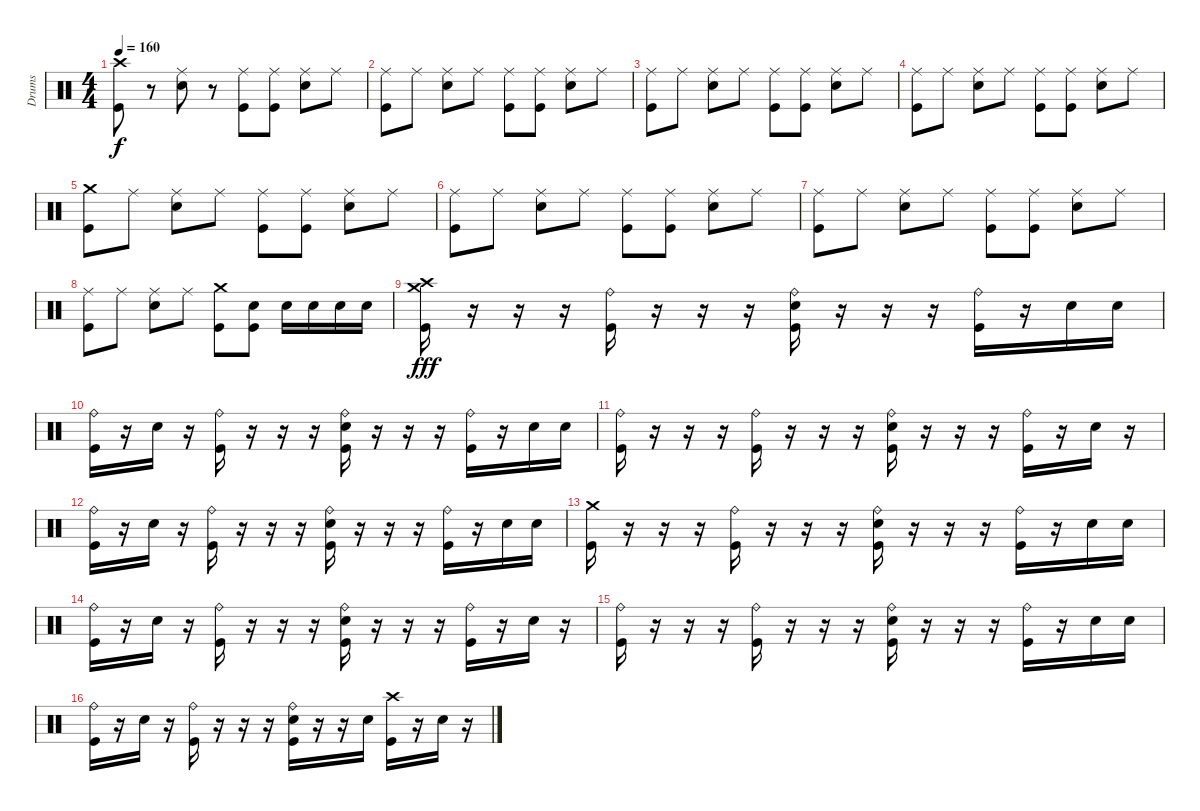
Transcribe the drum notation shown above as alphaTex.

\track ("Drums" "Drums") {instrument percussion}
\staff {score}
\articulation defaults
\ts (4 4)
\tempo 160
\clef neutral
\ks c
("Crash high (hit)" "Kick (hit)").8{dy f} r.8 ("Ride (middle)" "Electric Snare (hit)").8 r.8 ("Ride (middle)" "Kick (hit)").8 ("Ride (middle)" "Kick (hit)").8 ("Ride (middle)" "Electric Snare (hit)").8 "Ride (middle)".8 |
("Ride (middle)" "Kick (hit)").8 "Ride (middle)".8 ("Ride (middle)" "Electric Snare (hit)").8 "Ride (middle)".8 ("Ride (middle)" "Kick (hit)").8 ("Ride (middle)" "Kick (hit)").8 ("Ride (middle)" "Electric Snare (hit)").8 "Ride (middle)".8 |
("Ride (middle)" "Kick (hit)").8 "Ride (middle)".8 ("Ride (middle)" "Electric Snare (hit)").8 "Ride (middle)".8 ("Ride (middle)" "Kick (hit)").8 ("Ride (middle)" "Kick (hit)").8 ("Ride (middle)" "Electric Snare (hit)").8 "Ride (middle)".8 |
("Ride (middle)" "Kick (hit)").8 "Ride (middle)".8 ("Ride (middle)" "Electric Snare (hit)").8 "Ride (middle)".8 ("Ride (middle)" "Kick (hit)").8 ("Ride (middle)" "Kick (hit)").8 ("Ride (middle)" "Electric Snare (hit)").8 "Ride (middle)".8 |
("Crash medium (hit)" "Kick (hit)").8 "Ride (middle)".8 ("Ride (middle)" "Electric Snare (hit)").8 "Ride (middle)".8 ("Ride (middle)" "Kick (hit)").8 ("Ride (middle)" "Kick (hit)").8 ("Ride (middle)" "Electric Snare (hit)").8 "Ride (middle)".8 |
("Ride (middle)" "Kick (hit)").8 "Ride (middle)".8 ("Ride (middle)" "Electric Snare (hit)").8 "Ride (middle)".8 ("Ride (middle)" "Kick (hit)").8 ("Ride (middle)" "Kick (hit)").8 ("Ride (middle)" "Electric Snare (hit)").8 "Ride (middle)".8 |
("Ride (middle)" "Kick (hit)").8 "Ride (middle)".8 ("Ride (middle)" "Electric Snare (hit)").8 "Ride (middle)".8 ("Ride (middle)" "Kick (hit)").8 ("Ride (middle)" "Kick (hit)").8 ("Ride (middle)" "Electric Snare (hit)").8 "Ride (middle)".8 |
("Ride (middle)" "Kick (hit)").8 "Ride (middle)".8 ("Ride (middle)" "Electric Snare (hit)").8 "Ride (middle)".8 ("Crash medium (hit)" "Kick (hit)").8 ("Electric Snare (hit)" "Kick (hit)").8 "Electric Snare (hit)".16 "Electric Snare (hit)".16 "Electric Snare (hit)".16 "Electric Snare (hit)".16 |
("Crash high (hit)" "Crash medium (hit)" "Kick (hit)").16{dy fff} r.16 r.16 r.16 ("Ride (bell)" "Kick (hit)").16 r.16 r.16 r.16 ("Ride (bell)" "Electric Snare (hit)" "Kick (hit)").16 r.16 r.16 r.16 ("Ride (bell)" "Kick (hit)").16 r.16 "Electric Snare (hit)".16 "Electric Snare (hit)".16 |
("Ride (bell)" "Kick (hit)").16 r.16 "Electric Snare (hit)".16 r.16 ("Ride (bell)" "Kick (hit)").16 r.16 r.16 r.16 ("Ride (bell)" "Electric Snare (hit)" "Kick (hit)").16 r.16 r.16 r.16 ("Ride (bell)" "Kick (hit)").16 r.16 "Electric Snare (hit)".16 "Electric Snare (hit)".16 |
("Ride (bell)" "Kick (hit)").16 r.16 r.16 r.16 ("Ride (bell)" "Kick (hit)").16 r.16 r.16 r.16 ("Ride (bell)" "Electric Snare (hit)" "Kick (hit)").16 r.16 r.16 r.16 ("Ride (bell)" "Kick (hit)").16 r.16 "Electric Snare (hit)".16 r.16 |
("Ride (bell)" "Kick (hit)").16 r.16 "Electric Snare (hit)".16 r.16 ("Ride (bell)" "Kick (hit)").16 r.16 r.16 r.16 ("Ride (bell)" "Electric Snare (hit)" "Kick (hit)").16 r.16 r.16 r.16 ("Ride (bell)" "Kick (hit)").16 r.16 "Electric Snare (hit)".16 "Electric Snare (hit)".16 |
("Crash medium (hit)" "Kick (hit)").16 r.16 r.16 r.16 ("Ride (bell)" "Kick (hit)").16 r.16 r.16 r.16 ("Ride (bell)" "Electric Snare (hit)" "Kick (hit)").16 r.16 r.16 r.16 ("Ride (bell)" "Kick (hit)").16 r.16 "Electric Snare (hit)".16 "Electric Snare (hit)".16 |
("Ride (bell)" "Kick (hit)").16 r.16 "Electric Snare (hit)".16 r.16 ("Ride (bell)" "Kick (hit)").16 r.16 r.16 r.16 ("Ride (bell)" "Electric Snare (hit)" "Kick (hit)").16 r.16 r.16 r.16 ("Ride (bell)" "Kick (hit)").16 r.16 "Electric Snare (hit)".16 r.16 |
("Ride (bell)" "Kick (hit)").16 r.16 r.16 r.16 ("Ride (bell)" "Kick (hit)").16 r.16 r.16 r.16 ("Ride (bell)" "Electric Snare (hit)" "Kick (hit)").16 r.16 r.16 r.16 ("Ride (bell)" "Kick (hit)").16 r.16 "Electric Snare (hit)".16 "Electric Snare (hit)".16 |
("Ride (bell)" "Kick (hit)").16 r.16 "Electric Snare (hit)".16 r.16 ("Ride (bell)" "Kick (hit)").16 r.16 r.16 r.16 ("Ride (bell)" "Electric Snare (hit)" "Kick (hit)").16 r.16 r.16 "Electric Snare (hit)".16 ("Crash high (hit)" "Kick (hit)").16 r.16 "Electric Snare (hit)".16 r.16
